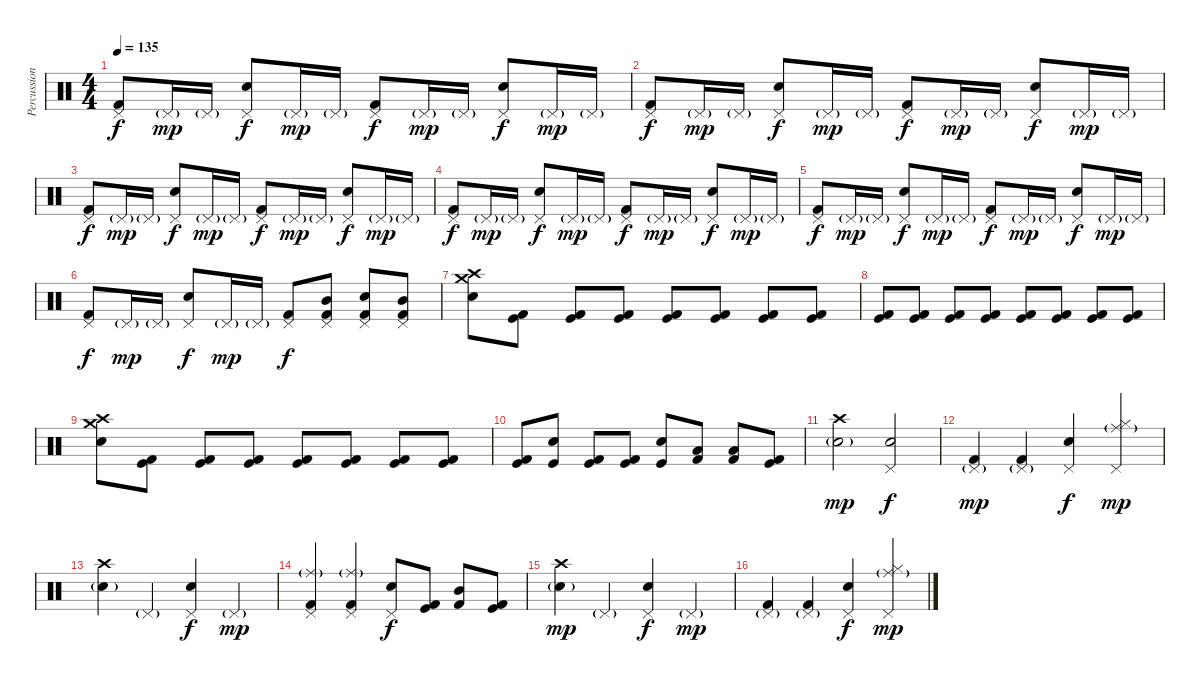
\track ("Percussion" "Percussion") {instrument percussion}
\staff {score}
\articulation defaults
\ts (4 4)
\tempo 135
\clef neutral
\ks c
("Pedal Hi-Hat (hit)" "Kick (hit) 2").8{dy f} "Pedal Hi-Hat (hit)"{g}.16{dy mp} "Pedal Hi-Hat (hit)"{g}.16 ("Pedal Hi-Hat (hit)" "Electric Snare (hit)").8{dy f} "Pedal Hi-Hat (hit)"{g}.16{dy mp} "Pedal Hi-Hat (hit)"{g}.16 ("Pedal Hi-Hat (hit)" "Kick (hit) 2").8{dy f} "Pedal Hi-Hat (hit)"{g}.16{dy mp} "Pedal Hi-Hat (hit)"{g}.16 ("Pedal Hi-Hat (hit)" "Electric Snare (hit)").8{dy f} "Pedal Hi-Hat (hit)"{g}.16{dy mp} "Pedal Hi-Hat (hit)"{g}.16 |
("Pedal Hi-Hat (hit)" "Kick (hit) 2").8{dy f} "Pedal Hi-Hat (hit)"{g}.16{dy mp} "Pedal Hi-Hat (hit)"{g}.16 ("Pedal Hi-Hat (hit)" "Electric Snare (hit)").8{dy f} "Pedal Hi-Hat (hit)"{g}.16{dy mp} "Pedal Hi-Hat (hit)"{g}.16 ("Pedal Hi-Hat (hit)" "Kick (hit) 2").8{dy f} "Pedal Hi-Hat (hit)"{g}.16{dy mp} "Pedal Hi-Hat (hit)"{g}.16 ("Pedal Hi-Hat (hit)" "Electric Snare (hit)").8{dy f} "Pedal Hi-Hat (hit)"{g}.16{dy mp} "Pedal Hi-Hat (hit)"{g}.16 |
("Pedal Hi-Hat (hit)" "Kick (hit) 2").8{dy f} "Pedal Hi-Hat (hit)"{g}.16{dy mp} "Pedal Hi-Hat (hit)"{g}.16 ("Pedal Hi-Hat (hit)" "Electric Snare (hit)").8{dy f} "Pedal Hi-Hat (hit)"{g}.16{dy mp} "Pedal Hi-Hat (hit)"{g}.16 ("Pedal Hi-Hat (hit)" "Kick (hit) 2").8{dy f} "Pedal Hi-Hat (hit)"{g}.16{dy mp} "Pedal Hi-Hat (hit)"{g}.16 ("Pedal Hi-Hat (hit)" "Electric Snare (hit)").8{dy f} "Pedal Hi-Hat (hit)"{g}.16{dy mp} "Pedal Hi-Hat (hit)"{g}.16 |
("Pedal Hi-Hat (hit)" "Kick (hit) 2").8{dy f} "Pedal Hi-Hat (hit)"{g}.16{dy mp} "Pedal Hi-Hat (hit)"{g}.16 ("Pedal Hi-Hat (hit)" "Electric Snare (hit)").8{dy f} "Pedal Hi-Hat (hit)"{g}.16{dy mp} "Pedal Hi-Hat (hit)"{g}.16 ("Pedal Hi-Hat (hit)" "Kick (hit) 2").8{dy f} "Pedal Hi-Hat (hit)"{g}.16{dy mp} "Pedal Hi-Hat (hit)"{g}.16 ("Pedal Hi-Hat (hit)" "Electric Snare (hit)").8{dy f} "Pedal Hi-Hat (hit)"{g}.16{dy mp} "Pedal Hi-Hat (hit)"{g}.16 |
("Pedal Hi-Hat (hit)" "Kick (hit) 2").8{dy f} "Pedal Hi-Hat (hit)"{g}.16{dy mp} "Pedal Hi-Hat (hit)"{g}.16 ("Pedal Hi-Hat (hit)" "Electric Snare (hit)").8{dy f} "Pedal Hi-Hat (hit)"{g}.16{dy mp} "Pedal Hi-Hat (hit)"{g}.16 ("Pedal Hi-Hat (hit)" "Kick (hit) 2").8{dy f} "Pedal Hi-Hat (hit)"{g}.16{dy mp} "Pedal Hi-Hat (hit)"{g}.16 ("Pedal Hi-Hat (hit)" "Electric Snare (hit)").8{dy f} "Pedal Hi-Hat (hit)"{g}.16{dy mp} "Pedal Hi-Hat (hit)"{g}.16 |
("Pedal Hi-Hat (hit)" "Kick (hit) 2").8{dy f} "Pedal Hi-Hat (hit)"{g}.16{dy mp} "Pedal Hi-Hat (hit)"{g}.16 ("Pedal Hi-Hat (hit)" "Electric Snare (hit)").8{dy f} "Pedal Hi-Hat (hit)"{g}.16{dy mp} "Pedal Hi-Hat (hit)"{g}.16 ("Pedal Hi-Hat (hit)" "Kick (hit) 2").8{dy f} ("Pedal Hi-Hat (hit)" "Kick (hit) 2" "Mid Tom (hit)").8 ("Pedal Hi-Hat (hit)" "Electric Snare (hit)" "Kick (hit) 2").8 ("Pedal Hi-Hat (hit)" "Kick (hit) 2" "Mid Tom (hit)").8 |
("Crash high (hit)" "Crash medium (hit)" "Electric Snare (hit)").8 ("Kick (hit) 2" "Kick (hit)").8 ("Kick (hit) 2" "Kick (hit)").8 ("Kick (hit) 2" "Kick (hit)").8 ("Kick (hit) 2" "Kick (hit)").8 ("Kick (hit) 2" "Kick (hit)").8 ("Kick (hit) 2" "Kick (hit)").8 ("Kick (hit) 2" "Kick (hit)").8 |
("Kick (hit) 2" "Kick (hit)").8 ("Kick (hit) 2" "Kick (hit)").8 ("Kick (hit) 2" "Kick (hit)").8 ("Kick (hit) 2" "Kick (hit)").8 ("Kick (hit) 2" "Kick (hit)").8 ("Kick (hit) 2" "Kick (hit)").8 ("Kick (hit) 2" "Kick (hit)").8 ("Kick (hit) 2" "Kick (hit)").8 |
("Crash high (hit)" "Crash medium (hit)" "Electric Snare (hit)").8 ("Kick (hit) 2" "Kick (hit)").8 ("Kick (hit) 2" "Kick (hit)").8 ("Kick (hit) 2" "Kick (hit)").8 ("Kick (hit) 2" "Kick (hit)").8 ("Kick (hit) 2" "Kick (hit)").8 ("Kick (hit) 2" "Kick (hit)").8 ("Kick (hit) 2" "Kick (hit)").8 |
("Kick (hit) 2" "Kick (hit)").8 ("Electric Snare (hit)" "Kick (hit)").8 ("Kick (hit) 2" "Kick (hit)").8 ("Kick (hit) 2" "Kick (hit)").8 ("Electric Snare (hit)" "Kick (hit)").8 ("Kick (hit) 2" "Low Tom (hit)").8 ("Kick (hit) 2" "Low Floor Tom (hit)").8 ("Kick (hit) 2" "Kick (hit)").8 |
("Crash high (hit)" "Electric Snare (hit)"{g}).2{dy mp} ("Pedal Hi-Hat (hit)" "Electric Snare (hit)").2{dy f} |
("Pedal Hi-Hat (hit)"{g} "Kick (hit) 2").4{dy mp} ("Pedal Hi-Hat (hit)"{g} "Kick (hit) 2").4 ("Pedal Hi-Hat (hit)" "Electric Snare (hit)").4{dy f} ("Pedal Hi-Hat (hit)" "Hi-Hat (closed)" "Ride (middle)"{g}).4{dy mp} |
("Crash high (hit)" "Electric Snare (hit)"{g}).4 "Pedal Hi-Hat (hit)"{g}.4 ("Pedal Hi-Hat (hit)" "Electric Snare (hit)").4{dy f} "Pedal Hi-Hat (hit)"{g}.4{dy mp} |
("Pedal Hi-Hat (hit)" "Kick (hit) 2" "Ride (middle)"{g}).4 ("Pedal Hi-Hat (hit)" "Kick (hit) 2" "Ride (middle)"{g}).4 ("Pedal Hi-Hat (hit)" "Electric Snare (hit)").8{dy f} ("Kick (hit) 2" "Kick (hit)").8 ("Kick (hit) 2" "Mid Tom (hit)").8 ("Kick (hit) 2" "Kick (hit)").8 |
("Crash high (hit)" "Electric Snare (hit)"{g}).4{dy mp} "Pedal Hi-Hat (hit)"{g}.4 ("Pedal Hi-Hat (hit)" "Electric Snare (hit)").4{dy f} "Pedal Hi-Hat (hit)"{g}.4{dy mp} |
("Pedal Hi-Hat (hit)"{g} "Kick (hit) 2").4 ("Pedal Hi-Hat (hit)"{g} "Kick (hit) 2").4 ("Pedal Hi-Hat (hit)" "Electric Snare (hit)").4{dy f} ("Pedal Hi-Hat (hit)" "Hi-Hat (closed)" "Ride (middle)"{g}).4{dy mp}
